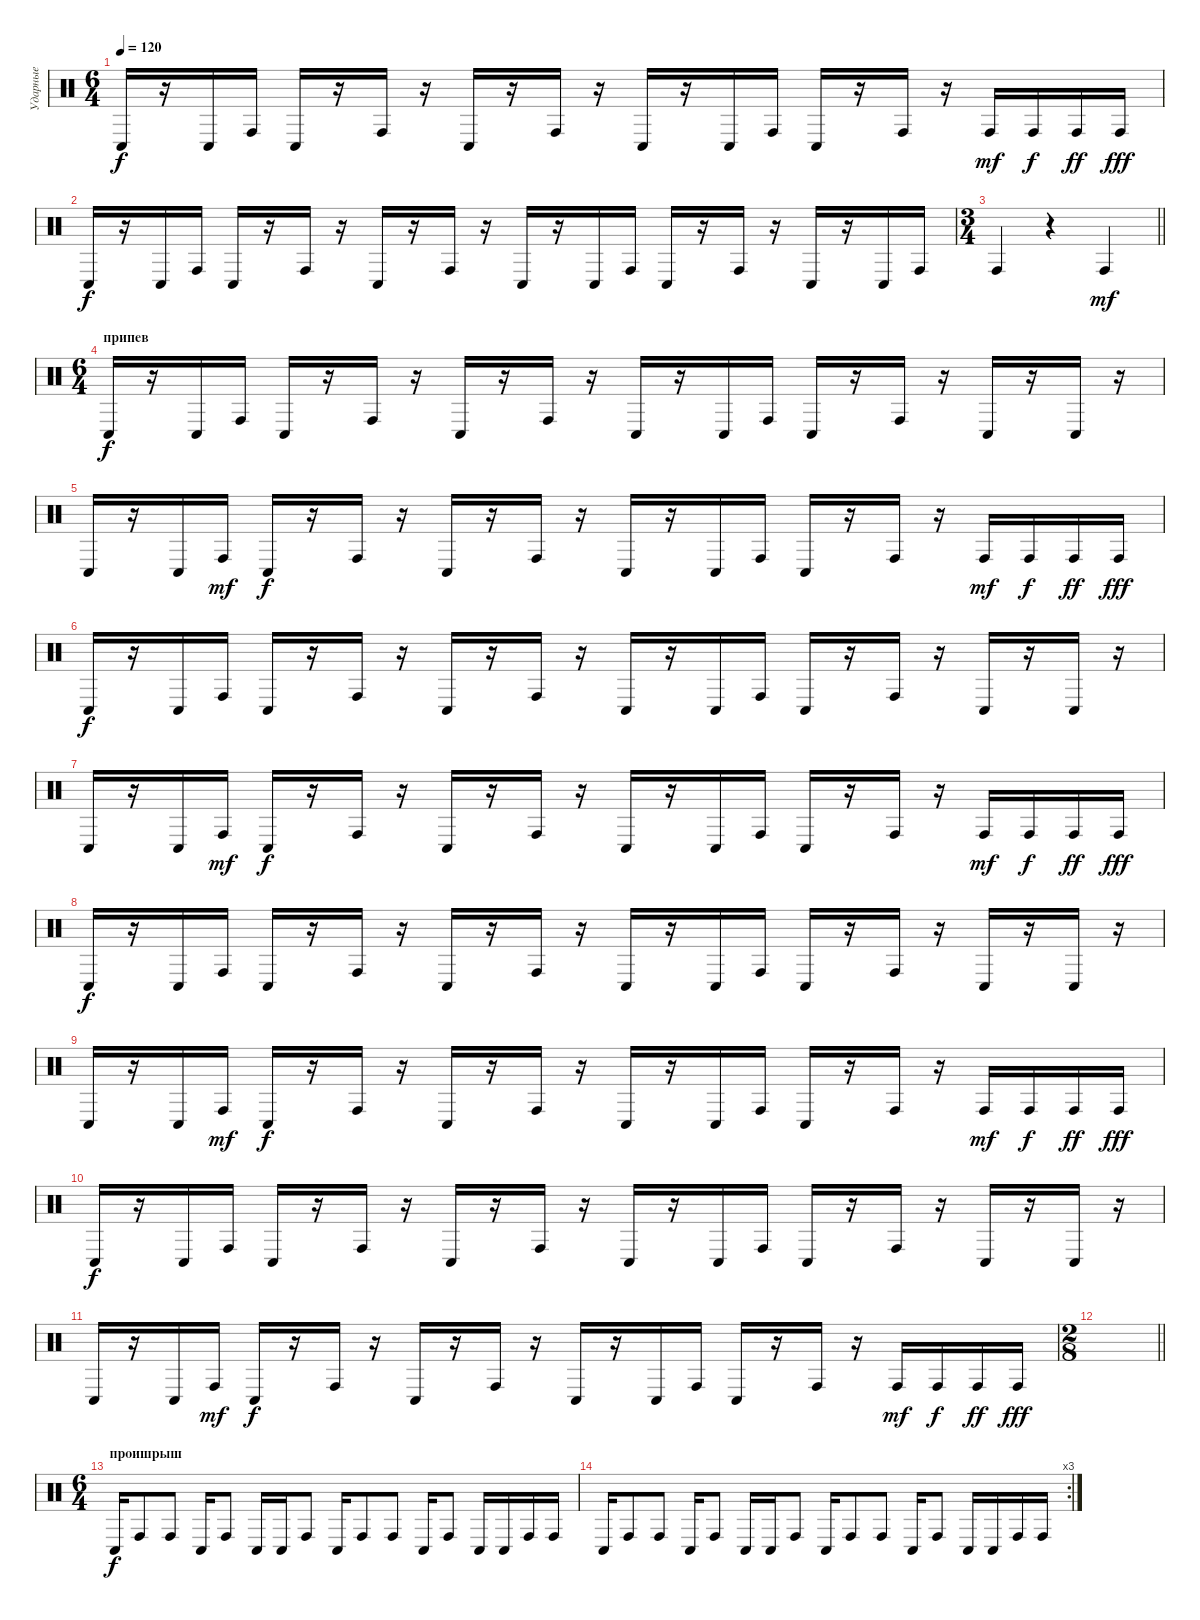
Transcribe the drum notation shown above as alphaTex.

\track ("Ударные" "Ударные") {instrument percussion}
\staff {score}
\articulation defaults
\ts (6 4)
\tempo 120
\clef neutral
\ks c "Conga low (hit)".16{dy f}
r.16 "Conga low (hit)".16 "Conga high (hit)".16 "Conga low (hit)".16 r.16 "Conga high (hit)".16 r.16 "Conga low (hit)".16 r.16 "Conga high (hit)".16 r.16 "Conga low (hit)".16 r.16 "Conga low (hit)".16 "Conga high (hit)".16 "Conga low (hit)".16 r.16 "Conga high (hit)".16 r.16 "Conga high (hit)".16{dy mf} "Conga high (hit)".16{dy f} "Conga high (hit)".16{dy ff} "Conga high (hit)".16{dy fff} |
"Conga low (hit)".16{dy f} r.16 "Conga low (hit)".16 "Conga high (hit)".16 "Conga low (hit)".16 r.16 "Conga high (hit)".16 r.16 "Conga low (hit)".16 r.16 "Conga high (hit)".16 r.16 "Conga low (hit)".16 r.16 "Conga low (hit)".16 "Conga high (hit)".16 "Conga low (hit)".16 r.16 "Conga high (hit)".16 r.16 "Conga low (hit)".16 r.16 "Conga low (hit)".16 "Conga high (hit)".16 |
\ts (3 4)
\barLineRight lightlight "Conga high (hit)".4
r.4 "Conga high (hit)".4{dy mf} |
\ts (6 4)
\section ("" "припев")
"Conga low (hit)".16{dy f} r.16 "Conga low (hit)".16 "Conga high (hit)".16 "Conga low (hit)".16 r.16 "Conga high (hit)".16 r.16 "Conga low (hit)".16 r.16 "Conga high (hit)".16 r.16 "Conga low (hit)".16 r.16 "Conga low (hit)".16 "Conga high (hit)".16 "Conga low (hit)".16 r.16 "Conga high (hit)".16 r.16 "Conga low (hit)".16 r.16 "Conga low (hit)".16 r.16 |
"Conga low (hit)".16 r.16 "Conga low (hit)".16 "Conga high (hit)".16{dy mf} "Conga low (hit)".16{dy f} r.16 "Conga high (hit)".16 r.16 "Conga low (hit)".16 r.16 "Conga high (hit)".16 r.16 "Conga low (hit)".16 r.16 "Conga low (hit)".16 "Conga high (hit)".16 "Conga low (hit)".16 r.16 "Conga high (hit)".16 r.16 "Conga high (hit)".16{dy mf} "Conga high (hit)".16{dy f} "Conga high (hit)".16{dy ff} "Conga high (hit)".16{dy fff} |
"Conga low (hit)".16{dy f} r.16 "Conga low (hit)".16 "Conga high (hit)".16 "Conga low (hit)".16 r.16 "Conga high (hit)".16 r.16 "Conga low (hit)".16 r.16 "Conga high (hit)".16 r.16 "Conga low (hit)".16 r.16 "Conga low (hit)".16 "Conga high (hit)".16 "Conga low (hit)".16 r.16 "Conga high (hit)".16 r.16 "Conga low (hit)".16 r.16 "Conga low (hit)".16 r.16 |
"Conga low (hit)".16 r.16 "Conga low (hit)".16 "Conga high (hit)".16{dy mf} "Conga low (hit)".16{dy f} r.16 "Conga high (hit)".16 r.16 "Conga low (hit)".16 r.16 "Conga high (hit)".16 r.16 "Conga low (hit)".16 r.16 "Conga low (hit)".16 "Conga high (hit)".16 "Conga low (hit)".16 r.16 "Conga high (hit)".16 r.16 "Conga high (hit)".16{dy mf} "Conga high (hit)".16{dy f} "Conga high (hit)".16{dy ff} "Conga high (hit)".16{dy fff} |
"Conga low (hit)".16{dy f} r.16 "Conga low (hit)".16 "Conga high (hit)".16 "Conga low (hit)".16 r.16 "Conga high (hit)".16 r.16 "Conga low (hit)".16 r.16 "Conga high (hit)".16 r.16 "Conga low (hit)".16 r.16 "Conga low (hit)".16 "Conga high (hit)".16 "Conga low (hit)".16 r.16 "Conga high (hit)".16 r.16 "Conga low (hit)".16 r.16 "Conga low (hit)".16 r.16 |
"Conga low (hit)".16 r.16 "Conga low (hit)".16 "Conga high (hit)".16{dy mf} "Conga low (hit)".16{dy f} r.16 "Conga high (hit)".16 r.16 "Conga low (hit)".16 r.16 "Conga high (hit)".16 r.16 "Conga low (hit)".16 r.16 "Conga low (hit)".16 "Conga high (hit)".16 "Conga low (hit)".16 r.16 "Conga high (hit)".16 r.16 "Conga high (hit)".16{dy mf} "Conga high (hit)".16{dy f} "Conga high (hit)".16{dy ff} "Conga high (hit)".16{dy fff} |
"Conga low (hit)".16{dy f} r.16 "Conga low (hit)".16 "Conga high (hit)".16 "Conga low (hit)".16 r.16 "Conga high (hit)".16 r.16 "Conga low (hit)".16 r.16 "Conga high (hit)".16 r.16 "Conga low (hit)".16 r.16 "Conga low (hit)".16 "Conga high (hit)".16 "Conga low (hit)".16 r.16 "Conga high (hit)".16 r.16 "Conga low (hit)".16 r.16 "Conga low (hit)".16 r.16 |
"Conga low (hit)".16 r.16 "Conga low (hit)".16 "Conga high (hit)".16{dy mf} "Conga low (hit)".16{dy f} r.16 "Conga high (hit)".16 r.16 "Conga low (hit)".16 r.16 "Conga high (hit)".16 r.16 "Conga low (hit)".16 r.16 "Conga low (hit)".16 "Conga high (hit)".16 "Conga low (hit)".16 r.16 "Conga high (hit)".16 r.16 "Conga high (hit)".16{dy mf} "Conga high (hit)".16{dy f} "Conga high (hit)".16{dy ff} "Conga high (hit)".16{dy fff} |
\ts (2 8)
\barLineRight lightlight
|
\ts (6 4)
\section ("" "проишрыш")
"Conga low (hit)".16{dy f} "Conga high (hit)".8 "Conga high (hit)".8 "Conga low (hit)".16 "Conga high (hit)".8 "Conga low (hit)".16 "Conga low (hit)".16 "Conga high (hit)".8 "Conga low (hit)".16 "Conga high (hit)".8 "Conga high (hit)".8 "Conga low (hit)".16 "Conga high (hit)".8 "Conga low (hit)".16 "Conga low (hit)".16 "Conga high (hit)".16 "Conga high (hit)".16 |
\rc 3 "Conga low (hit)".16 "Conga high (hit)".8 "Conga high (hit)".8 "Conga low (hit)".16 "Conga high (hit)".8 "Conga low (hit)".16 "Conga low (hit)".16 "Conga high (hit)".8 "Conga low (hit)".16 "Conga high (hit)".8 "Conga high (hit)".8 "Conga low (hit)".16 "Conga high (hit)".8 "Conga low (hit)".16 "Conga low (hit)".16 "Conga high (hit)".16 "Conga high (hit)".16
